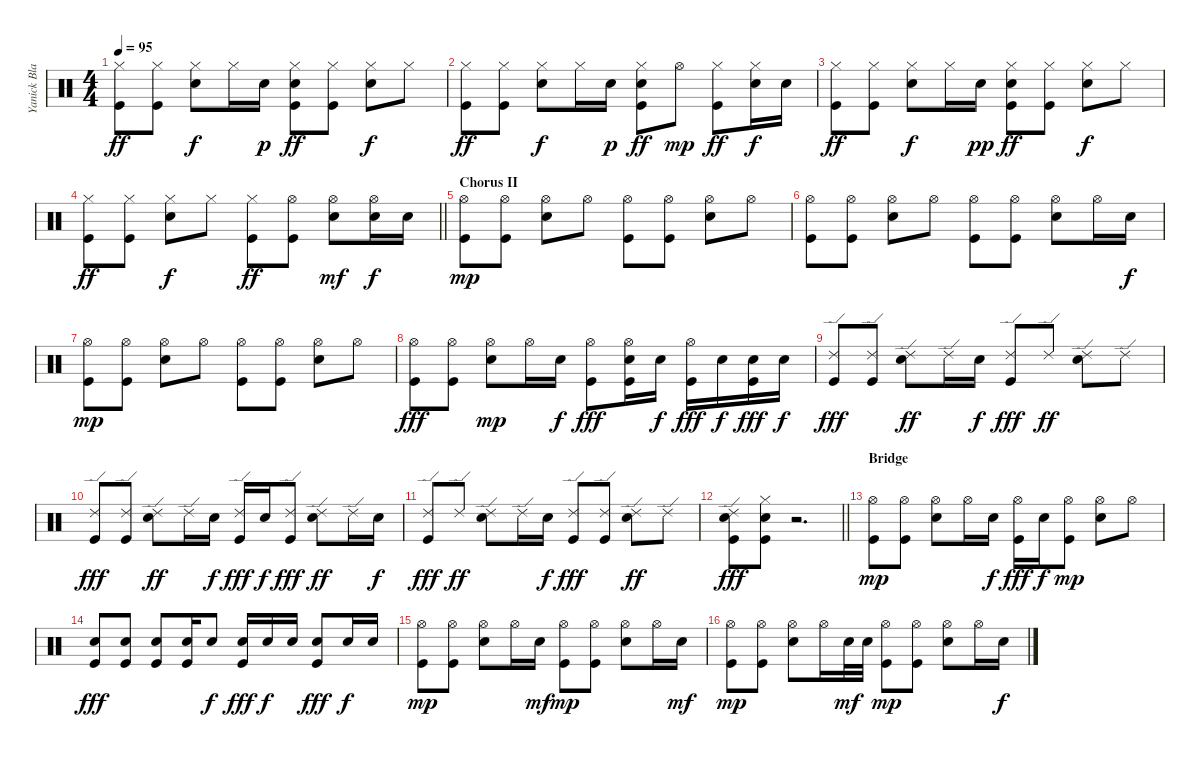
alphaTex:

\track ("Yanick Blanchette" "Yanick Bla") {instrument percussion}
\staff {score}
\articulation defaults
\ts (4 4)
\tempo 95
\clef neutral
\ks c
("Hi-Hat (closed)" "Kick (hit)").8{dy ff} ("Hi-Hat (closed)" "Kick (hit)").8 ("Hi-Hat (closed)" "Snare (hit) 2").8{dy f} "Hi-Hat (closed)".16 "Snare (hit) 2".16{dy p} ("Hi-Hat (closed)" "Snare (hit) 2" "Kick (hit)").8{dy ff} ("Hi-Hat (closed)" "Kick (hit)").8 ("Hi-Hat (closed)" "Snare (hit) 2").8{dy f} "Hi-Hat (closed)".8 |
("Hi-Hat (closed)" "Kick (hit)").8{dy ff} ("Hi-Hat (closed)" "Kick (hit)").8 ("Hi-Hat (closed)" "Snare (hit) 2").8{dy f} "Hi-Hat (closed)".16 "Snare (hit) 2".16{dy p} ("Hi-Hat (closed)" "Snare (hit) 2" "Kick (hit)").8{dy ff} "Hi-Hat (open)".8{dy mp} ("Hi-Hat (closed)" "Kick (hit)").8{dy ff} ("Hi-Hat (closed)" "Snare (hit) 2").16{dy f} "Snare (hit) 2".16 |
("Hi-Hat (closed)" "Kick (hit)").8{dy ff} ("Hi-Hat (closed)" "Kick (hit)").8 ("Hi-Hat (closed)" "Snare (hit) 2").8{dy f} "Hi-Hat (closed)".16 "Snare (hit) 2".16{dy pp} ("Hi-Hat (closed)" "Snare (hit) 2" "Kick (hit)").8{dy ff} ("Hi-Hat (closed)" "Kick (hit)").8 ("Hi-Hat (closed)" "Snare (hit) 2").8{dy f} "Hi-Hat (closed)".8 |
\barLineRight lightlight
("Hi-Hat (closed)" "Kick (hit)").8{dy ff} ("Hi-Hat (closed)" "Kick (hit)").8 ("Hi-Hat (closed)" "Snare (hit) 2").8{dy f} "Hi-Hat (closed)".8 ("Hi-Hat (closed)" "Kick (hit)").8{dy ff} ("Hi-Hat (open)" "Kick (hit)").8 ("Hi-Hat (open)" "Snare (hit) 2").8{dy mf} ("Hi-Hat (open)" "Snare (hit) 2").16{dy f} "Snare (hit) 2".16 |
\section ("" "Chorus II")
("Hi-Hat (open)" "Kick (hit)").8{dy mp} ("Hi-Hat (open)" "Kick (hit)").8 ("Hi-Hat (open)" "Snare (hit) 2").8 "Hi-Hat (open)".8 ("Hi-Hat (open)" "Kick (hit)").8 ("Hi-Hat (open)" "Kick (hit)").8 ("Hi-Hat (open)" "Snare (hit) 2").8 "Hi-Hat (open)".8 |
("Hi-Hat (open)" "Kick (hit)").8 ("Hi-Hat (open)" "Kick (hit)").8 ("Hi-Hat (open)" "Snare (hit) 2").8 "Hi-Hat (open)".8 ("Hi-Hat (open)" "Kick (hit)").8 ("Hi-Hat (open)" "Kick (hit)").8 ("Hi-Hat (open)" "Snare (hit) 2").8 "Hi-Hat (open)".16 "Snare (hit) 2".16{dy f} |
("Hi-Hat (open)" "Kick (hit)").8{dy mp} ("Hi-Hat (open)" "Kick (hit)").8 ("Hi-Hat (open)" "Snare (hit) 2").8 "Hi-Hat (open)".8 ("Hi-Hat (open)" "Kick (hit)").8 ("Hi-Hat (open)" "Kick (hit)").8 ("Hi-Hat (open)" "Snare (hit) 2").8 "Hi-Hat (open)".8 |
("Hi-Hat (open)" "Kick (hit)").8{dy fff} ("Hi-Hat (open)" "Kick (hit)").8 ("Hi-Hat (open)" "Snare (hit) 2").8{dy mp} "Hi-Hat (open)".16 "Snare (hit) 2".16{dy f} ("Hi-Hat (open)" "Kick (hit)").8{dy fff} ("Hi-Hat (open)" "Snare (hit) 2" "Kick (hit)").16 "Snare (hit) 2".16{dy f} ("Hi-Hat (open)" "Kick (hit)").16{dy fff} "Snare (hit) 2".16{dy f} ("Snare (hit) 2" "Kick (hit)").16{dy fff} "Snare (hit) 2".16{dy f} |
("Ride (edge) 2" "Kick (hit)").8{dy fff} ("Ride (edge) 2" "Kick (hit)").8 ("Ride (edge) 2" "Snare (hit) 2").8{dy ff} "Ride (edge) 2".16 "Snare (hit) 2".16{dy f} ("Ride (edge) 2" "Kick (hit)").8{dy fff} "Ride (edge) 2".8{dy ff} ("Ride (edge) 2" "Snare (hit) 2").8 "Ride (edge) 2".8 |
("Ride (edge) 2" "Kick (hit)").8{dy fff} ("Ride (edge) 2" "Kick (hit)").8 ("Ride (edge) 2" "Snare (hit) 2").8{dy ff} "Ride (edge) 2".16 "Snare (hit) 2".16{dy f} ("Ride (edge) 2" "Kick (hit)").16{dy fff} "Snare (hit) 2".16{dy f} ("Ride (edge) 2" "Kick (hit)").8{dy fff} ("Ride (edge) 2" "Snare (hit) 2").8{dy ff} "Ride (edge) 2".16 "Snare (hit) 2".16{dy f} |
("Ride (edge) 2" "Kick (hit)").8{dy fff} "Ride (edge) 2".8{dy ff} ("Ride (edge) 2" "Snare (hit) 2").8 "Ride (edge) 2".16 "Snare (hit) 2".16{dy f} ("Ride (edge) 2" "Kick (hit)").8{dy fff} ("Ride (edge) 2" "Kick (hit)").8 ("Ride (edge) 2" "Snare (hit) 2").8{dy ff} "Ride (edge) 2".8 |
\barLineRight lightlight
("Ride (edge) 2" "Snare (hit) 2" "Kick (hit)").8{dy fff} ("Hi-Hat (closed)" "Snare (hit) 2" "Kick (hit)").8 r.2{d} |
\section ("" "Bridge")
("Hi-Hat (open)" "Kick (hit)").8{dy mp} ("Hi-Hat (open)" "Kick (hit)").8 ("Hi-Hat (open)" "Snare (hit) 2").8 "Hi-Hat (open)".16 "Snare (hit) 2".16{dy f} ("Hi-Hat (open)" "Kick (hit)").16{dy fff} "Snare (hit) 2".16{dy f} ("Hi-Hat (open)" "Kick (hit)").8{dy mp} ("Hi-Hat (open)" "Snare (hit) 2").8 "Hi-Hat (open)".8 |
("Snare (hit) 2" "Kick (hit)").8{dy fff} ("Snare (hit) 2" "Kick (hit)").8 ("Snare (hit) 2" "Kick (hit)").8 ("Snare (hit) 2" "Kick (hit)").16 "Snare (hit) 2".8{dy f} ("Snare (hit) 2" "Kick (hit)").16{dy fff} "Snare (hit) 2".16{dy f} "Snare (hit) 2".16 ("Snare (hit) 2" "Kick (hit)").8{dy fff} "Snare (hit) 2".16{dy f} "Snare (hit) 2".16 |
("Hi-Hat (open)" "Kick (hit)").8{dy mp} ("Hi-Hat (open)" "Kick (hit)").8 ("Hi-Hat (open)" "Snare (hit) 2").8 "Hi-Hat (open)".16 "Snare (hit) 2".16{dy mf} ("Hi-Hat (open)" "Kick (hit)").8{dy mp} ("Hi-Hat (open)" "Kick (hit)").8 ("Hi-Hat (open)" "Snare (hit) 2").8 "Hi-Hat (open)".16 "Snare (hit) 2".16{dy mf} |
("Hi-Hat (open)" "Kick (hit)").8{dy mp} ("Hi-Hat (open)" "Kick (hit)").8 ("Hi-Hat (open)" "Snare (hit) 2").8 "Hi-Hat (open)".16 "Snare (hit) 2".32{dy mf} "Snare (hit) 2".32 ("Hi-Hat (open)" "Kick (hit)").8{dy mp} ("Hi-Hat (open)" "Kick (hit)").8 ("Hi-Hat (open)" "Snare (hit) 2").8 "Hi-Hat (open)".16 "Snare (hit) 2".16{dy f}
